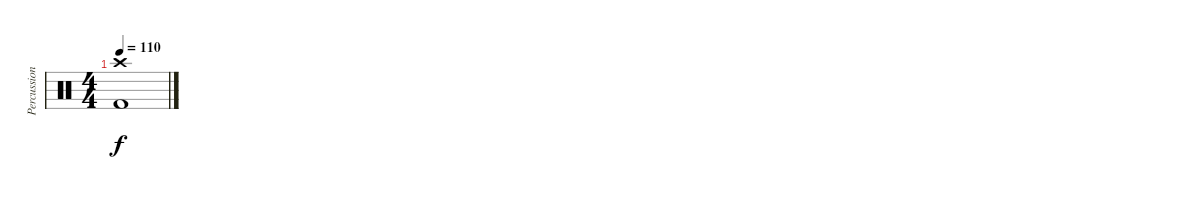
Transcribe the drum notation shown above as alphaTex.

\track ("Percussion" "Percussion") {instrument percussion}
\staff {score}
\articulation defaults
\ts (4 4)
\tempo 110
\clef neutral
\ks c
("Crash high (hit)" "Kick (hit) 2").1{dy f}
